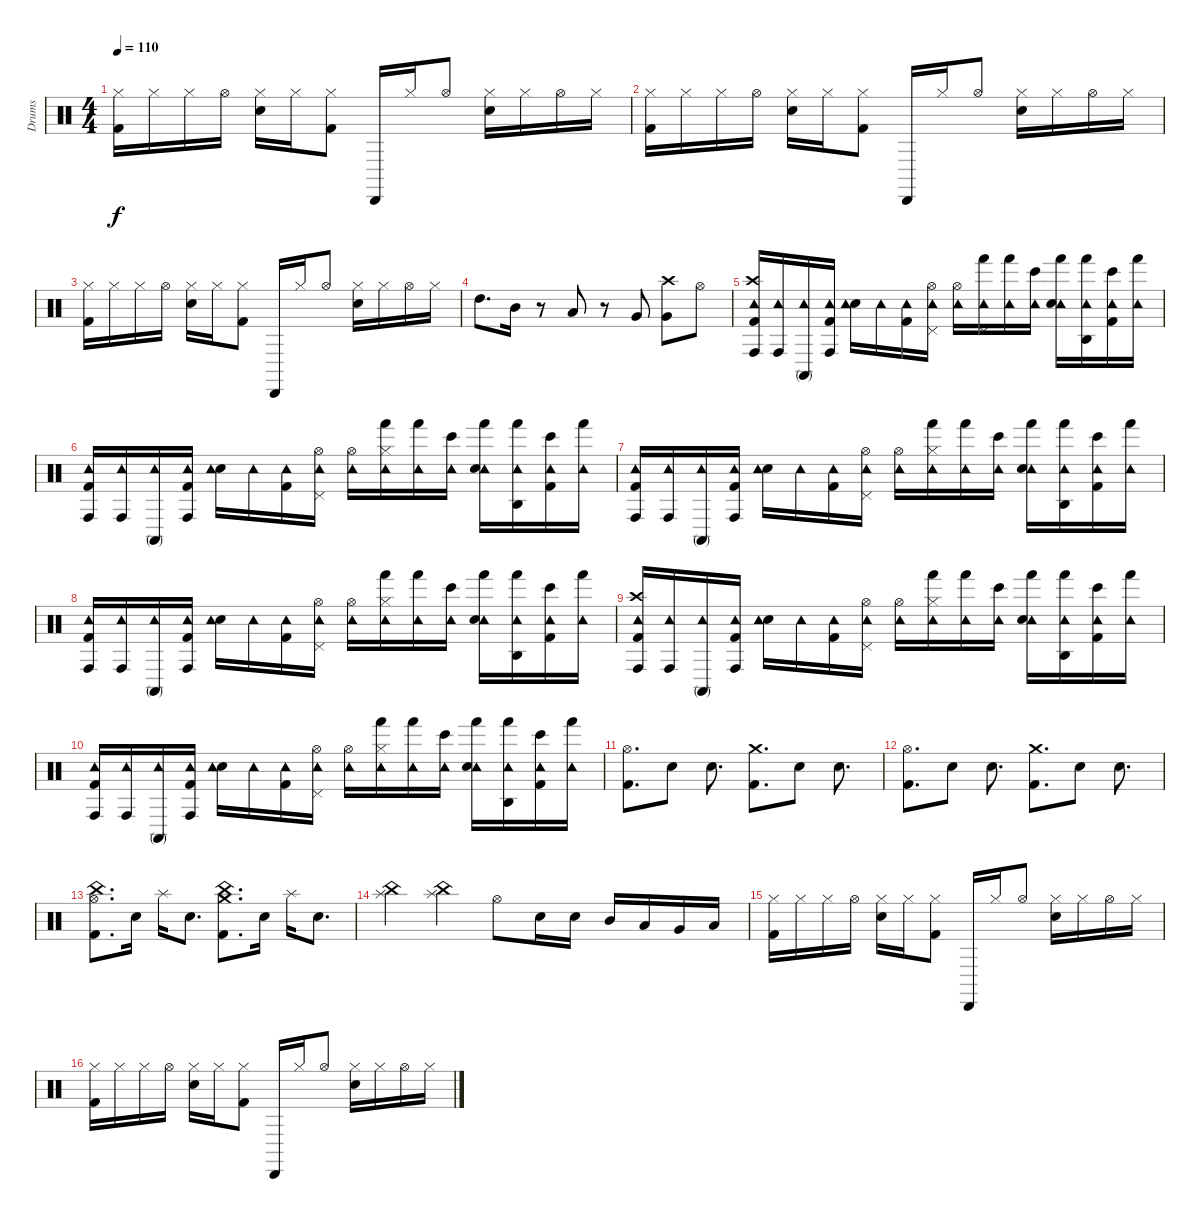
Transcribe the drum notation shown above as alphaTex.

\track ("Drums" "Drums") {instrument percussion}
\staff {score}
\articulation defaults
\ts (4 4)
\tempo 110
\clef neutral
\ks c
("Kick (hit) 2" "Hi-Hat (closed)").16{dy f} "Hi-Hat (closed)".16 "Hi-Hat (closed)".16 "Hi-Hat (open)".16 ("Snare (hit) 2" "Hi-Hat (closed)").16 "Hi-Hat (closed)".16 ("Kick (hit) 2" "Hi-Hat (closed)").8 "Cabasa (hit)".16 "Hi-Hat (closed)".16 "Hi-Hat (open)".8 ("Snare (hit) 2" "Hi-Hat (closed)").16 "Hi-Hat (closed)".16 "Hi-Hat (open)".16 "Hi-Hat (closed)".16 |
("Kick (hit) 2" "Hi-Hat (closed)").16 "Hi-Hat (closed)".16 "Hi-Hat (closed)".16 "Hi-Hat (open)".16 ("Snare (hit) 2" "Hi-Hat (closed)").16 "Hi-Hat (closed)".16 ("Kick (hit) 2" "Hi-Hat (closed)").8 "Cabasa (hit)".16 "Hi-Hat (closed)".16 "Hi-Hat (open)".8 ("Snare (hit) 2" "Hi-Hat (closed)").16 "Hi-Hat (closed)".16 "Hi-Hat (open)".16 "Hi-Hat (closed)".16 |
("Kick (hit) 2" "Hi-Hat (closed)").16 "Hi-Hat (closed)".16 "Hi-Hat (closed)".16 "Hi-Hat (open)".16 ("Snare (hit) 2" "Hi-Hat (closed)").16 "Hi-Hat (closed)".16 ("Kick (hit) 2" "Hi-Hat (closed)").8 "Cabasa (hit)".16 "Hi-Hat (closed)".16 "Hi-Hat (open)".8 ("Snare (hit) 2" "Hi-Hat (closed)").16 "Hi-Hat (closed)".16 "Hi-Hat (open)".16 "Hi-Hat (closed)".16 |
"High Tom (hit)".8{d} "Mid Tom (hit)".16 r.8 "Low Tom (hit)".8 r.8 "Very Low Tom (hit)".8 ("Very Low Tom (hit)" "Crash high (hit)").8 "Hi-Hat (open)".8 |
("Conga high (hit)" "Kick (hit) 2" "Crash high (hit)" "Tambourine (hit)").16 ("Conga high (hit)" "Tambourine (hit)").16 ("Conga high (mute)" "Tambourine (hit)").16 ("Conga high (hit)" "Kick (hit) 2" "Tambourine (hit)").16 ("Snare (hit) 2" "Tambourine (hit)").16 "Tambourine (hit)".16 ("Kick (hit) 2" "Tambourine (hit)").16 ("Tambourine (hit)" "Pedal Hi-Hat (hit)" "Hi-Hat (open)").16 ("Tambourine (hit)" "Hi-Hat (open)").16 ("Hand (hit)" "Tambourine (hit)" "Pedal Hi-Hat (hit)").16 ("Hand (hit)" "Tambourine (hit)").16 ("Bongo High (hit)" "Tambourine (hit)").16 ("Hand (hit)" "Tambourine (hit)" "Electric Snare (hit)").16 ("Hand (hit)" "Agogo high (hit)" "Tambourine (hit)").16 ("Bongo High (hit)" "Kick (hit) 2" "Tambourine (hit)").16 ("Hand (hit)" "Tambourine (hit)").16 |
("Conga high (hit)" "Kick (hit) 2" "Tambourine (hit)").16 ("Conga high (hit)" "Tambourine (hit)").16 ("Conga high (mute)" "Tambourine (hit)").16 ("Conga high (hit)" "Kick (hit) 2" "Tambourine (hit)").16 ("Snare (hit) 2" "Tambourine (hit)").16 "Tambourine (hit)".16 ("Kick (hit) 2" "Tambourine (hit)").16 ("Tambourine (hit)" "Pedal Hi-Hat (hit)" "Hi-Hat (open)").16 ("Tambourine (hit)" "Hi-Hat (open)").16 ("Hand (hit)" "Tambourine (hit)" "Hi-Hat (closed)").16 ("Hand (hit)" "Tambourine (hit)").16 ("Bongo High (hit)" "Tambourine (hit)").16 ("Hand (hit)" "Tambourine (hit)" "Electric Snare (hit)").16 ("Hand (hit)" "Agogo high (hit)" "Tambourine (hit)").16 ("Bongo High (hit)" "Kick (hit) 2" "Tambourine (hit)").16 ("Hand (hit)" "Tambourine (hit)").16 |
("Conga high (hit)" "Kick (hit) 2" "Tambourine (hit)").16 ("Conga high (hit)" "Tambourine (hit)").16 ("Conga high (mute)" "Tambourine (hit)").16 ("Conga high (hit)" "Kick (hit) 2" "Tambourine (hit)").16 ("Snare (hit) 2" "Tambourine (hit)").16 "Tambourine (hit)".16 ("Kick (hit) 2" "Tambourine (hit)").16 ("Tambourine (hit)" "Pedal Hi-Hat (hit)" "Hi-Hat (open)").16 ("Tambourine (hit)" "Hi-Hat (open)").16 ("Hand (hit)" "Tambourine (hit)" "Hi-Hat (closed)").16 ("Hand (hit)" "Tambourine (hit)").16 ("Bongo High (hit)" "Tambourine (hit)").16 ("Hand (hit)" "Tambourine (hit)" "Electric Snare (hit)").16 ("Hand (hit)" "Agogo high (hit)" "Tambourine (hit)").16 ("Bongo High (hit)" "Kick (hit) 2" "Tambourine (hit)").16 ("Hand (hit)" "Tambourine (hit)").16 |
("Conga high (hit)" "Kick (hit) 2" "Tambourine (hit)").16 ("Conga high (hit)" "Tambourine (hit)").16 ("Conga high (mute)" "Tambourine (hit)").16 ("Conga high (hit)" "Kick (hit) 2" "Tambourine (hit)").16 ("Snare (hit) 2" "Tambourine (hit)").16 "Tambourine (hit)".16 ("Kick (hit) 2" "Tambourine (hit)").16 ("Tambourine (hit)" "Pedal Hi-Hat (hit)" "Hi-Hat (open)").16 ("Tambourine (hit)" "Hi-Hat (open)").16 ("Hand (hit)" "Tambourine (hit)" "Hi-Hat (closed)").16 ("Hand (hit)" "Tambourine (hit)").16 ("Bongo High (hit)" "Tambourine (hit)").16 ("Hand (hit)" "Tambourine (hit)" "Electric Snare (hit)").16 ("Hand (hit)" "Agogo high (hit)" "Tambourine (hit)").16 ("Bongo High (hit)" "Kick (hit) 2" "Tambourine (hit)").16 ("Hand (hit)" "Tambourine (hit)").16 |
("Conga high (hit)" "Kick (hit) 2" "Crash high (hit)" "Tambourine (hit)").16 ("Conga high (hit)" "Tambourine (hit)").16 ("Conga high (mute)" "Tambourine (hit)").16 ("Conga high (hit)" "Kick (hit) 2" "Tambourine (hit)").16 ("Snare (hit) 2" "Tambourine (hit)").16 "Tambourine (hit)".16 ("Kick (hit) 2" "Tambourine (hit)").16 ("Tambourine (hit)" "Pedal Hi-Hat (hit)" "Hi-Hat (open)").16 ("Tambourine (hit)" "Hi-Hat (open)").16 ("Hand (hit)" "Tambourine (hit)" "Hi-Hat (closed)").16 ("Hand (hit)" "Tambourine (hit)").16 ("Bongo High (hit)" "Tambourine (hit)").16 ("Hand (hit)" "Tambourine (hit)" "Electric Snare (hit)").16 ("Hand (hit)" "Agogo high (hit)" "Tambourine (hit)").16 ("Bongo High (hit)" "Kick (hit) 2" "Tambourine (hit)").16 ("Hand (hit)" "Tambourine (hit)").16 |
("Conga high (hit)" "Kick (hit) 2" "Tambourine (hit)").16 ("Conga high (hit)" "Tambourine (hit)").16 ("Conga high (mute)" "Tambourine (hit)").16 ("Conga high (hit)" "Kick (hit) 2" "Tambourine (hit)").16 ("Snare (hit) 2" "Tambourine (hit)").16 "Tambourine (hit)".16 ("Kick (hit) 2" "Tambourine (hit)").16 ("Tambourine (hit)" "Pedal Hi-Hat (hit)" "Hi-Hat (open)").16 ("Tambourine (hit)" "Hi-Hat (open)").16 ("Hand (hit)" "Tambourine (hit)" "Hi-Hat (closed)").16 ("Hand (hit)" "Tambourine (hit)").16 ("Bongo High (hit)" "Tambourine (hit)").16 ("Hand (hit)" "Tambourine (hit)" "Electric Snare (hit)").16 ("Hand (hit)" "Agogo high (hit)" "Tambourine (hit)").16 ("Bongo High (hit)" "Kick (hit) 2" "Tambourine (hit)").16 ("Hand (hit)" "Tambourine (hit)").16 |
("Kick (hit) 2" "Hi-Hat (open)").8{d} "Snare (hit) 2".8 "Snare (hit) 2".8{d} ("Kick (hit) 2" "Crash medium (hit)").8{d} "Snare (hit) 2".8 "Snare (hit) 2".8{d} |
("Kick (hit) 2" "Hi-Hat (open)").8{d} "Snare (hit) 2".8 "Snare (hit) 2".8{d} ("Kick (hit) 2" "Crash medium (hit)").8{d} "Snare (hit) 2".8 "Snare (hit) 2".8{d} |
("China (hit)" "Kick (hit) 2" "Hi-Hat (open)").8{d} "Snare (hit) 2".16 "Splash (hit)".16 "Snare (hit) 2".8{d} ("China (hit)" "Kick (hit) 2" "Crash medium (hit)").8{d} "Snare (hit) 2".16 "Splash (hit)".16 "Snare (hit) 2".8{d} |
("China (hit)" "Splash (hit)").4 ("China (hit)" "Splash (hit)").4 "Hi-Hat (open)".8 "Snare (hit) 2".16 "Snare (hit) 2".16 "Mid Tom (hit)".16 "Low Tom (hit)".16 "Very Low Tom (hit)".16 "Low Floor Tom (hit)".16 |
("Kick (hit) 2" "Hi-Hat (closed)").16 "Hi-Hat (closed)".16 "Hi-Hat (closed)".16 "Hi-Hat (open)".16 ("Snare (hit) 2" "Hi-Hat (closed)").16 "Hi-Hat (closed)".16 ("Kick (hit) 2" "Hi-Hat (closed)").8 "Cabasa (hit)".16 "Hi-Hat (closed)".16 "Hi-Hat (open)".8 ("Snare (hit) 2" "Hi-Hat (closed)").16 "Hi-Hat (closed)".16 "Hi-Hat (open)".16 "Hi-Hat (closed)".16 |
("Kick (hit) 2" "Hi-Hat (closed)").16 "Hi-Hat (closed)".16 "Hi-Hat (closed)".16 "Hi-Hat (open)".16 ("Snare (hit) 2" "Hi-Hat (closed)").16 "Hi-Hat (closed)".16 ("Kick (hit) 2" "Hi-Hat (closed)").8 "Cabasa (hit)".16 "Hi-Hat (closed)".16 "Hi-Hat (open)".8 ("Snare (hit) 2" "Hi-Hat (closed)").16 "Hi-Hat (closed)".16 "Hi-Hat (open)".16 "Hi-Hat (closed)".16
